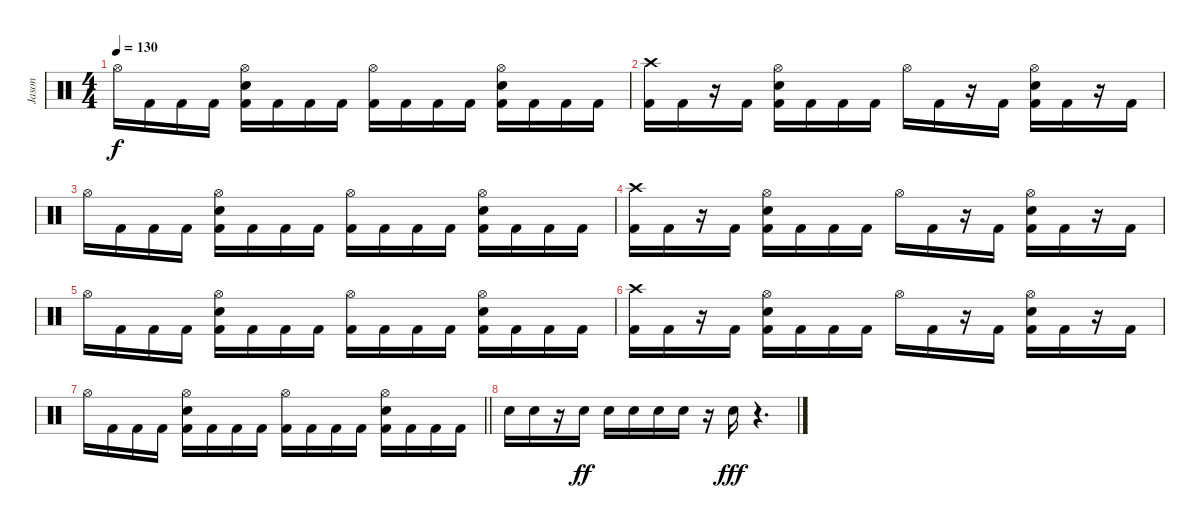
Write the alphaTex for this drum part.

\track ("Jason" "Jason") {instrument percussion}
\staff {score}
\articulation defaults
\ts (4 4)
\tempo 130
\clef neutral
\ks c "Hi-Hat (open)".16{dy f} "Kick (hit) 2".16 "Kick (hit) 2".16 "Kick (hit) 2".16
("Hi-Hat (open)" "Electric Snare (hit)" "Kick (hit) 2").16 "Kick (hit) 2".16 "Kick (hit) 2".16 "Kick (hit) 2".16 ("Hi-Hat (open)" "Kick (hit) 2").16 "Kick (hit) 2".16 "Kick (hit) 2".16 "Kick (hit) 2".16 ("Hi-Hat (open)" "Electric Snare (hit)" "Kick (hit) 2").16 "Kick (hit) 2".16 "Kick (hit) 2".16 "Kick (hit) 2".16 |
("Crash high (hit)" "Kick (hit) 2").16 "Kick (hit) 2".16 r.16 "Kick (hit) 2".16 ("Hi-Hat (open)" "Electric Snare (hit)" "Kick (hit) 2").16 "Kick (hit) 2".16 "Kick (hit) 2".16 "Kick (hit) 2".16 "Hi-Hat (open)".16 "Kick (hit) 2".16 r.16 "Kick (hit) 2".16 ("Hi-Hat (open)" "Electric Snare (hit)" "Kick (hit) 2").16 "Kick (hit) 2".16 r.16 "Kick (hit) 2".16 |
"Hi-Hat (open)".16 "Kick (hit) 2".16 "Kick (hit) 2".16 "Kick (hit) 2".16 ("Hi-Hat (open)" "Electric Snare (hit)" "Kick (hit) 2").16 "Kick (hit) 2".16 "Kick (hit) 2".16 "Kick (hit) 2".16 ("Hi-Hat (open)" "Kick (hit) 2").16 "Kick (hit) 2".16 "Kick (hit) 2".16 "Kick (hit) 2".16 ("Hi-Hat (open)" "Electric Snare (hit)" "Kick (hit) 2").16 "Kick (hit) 2".16 "Kick (hit) 2".16 "Kick (hit) 2".16 |
("Crash high (hit)" "Kick (hit) 2").16 "Kick (hit) 2".16 r.16 "Kick (hit) 2".16 ("Hi-Hat (open)" "Electric Snare (hit)" "Kick (hit) 2").16 "Kick (hit) 2".16 "Kick (hit) 2".16 "Kick (hit) 2".16 "Hi-Hat (open)".16 "Kick (hit) 2".16 r.16 "Kick (hit) 2".16 ("Hi-Hat (open)" "Electric Snare (hit)" "Kick (hit) 2").16 "Kick (hit) 2".16 r.16 "Kick (hit) 2".16 |
"Hi-Hat (open)".16 "Kick (hit) 2".16 "Kick (hit) 2".16 "Kick (hit) 2".16 ("Hi-Hat (open)" "Electric Snare (hit)" "Kick (hit) 2").16 "Kick (hit) 2".16 "Kick (hit) 2".16 "Kick (hit) 2".16 ("Hi-Hat (open)" "Kick (hit) 2").16 "Kick (hit) 2".16 "Kick (hit) 2".16 "Kick (hit) 2".16 ("Hi-Hat (open)" "Electric Snare (hit)" "Kick (hit) 2").16 "Kick (hit) 2".16 "Kick (hit) 2".16 "Kick (hit) 2".16 |
("Crash high (hit)" "Kick (hit) 2").16 "Kick (hit) 2".16 r.16 "Kick (hit) 2".16 ("Hi-Hat (open)" "Electric Snare (hit)" "Kick (hit) 2").16 "Kick (hit) 2".16 "Kick (hit) 2".16 "Kick (hit) 2".16 "Hi-Hat (open)".16 "Kick (hit) 2".16 r.16 "Kick (hit) 2".16 ("Hi-Hat (open)" "Electric Snare (hit)" "Kick (hit) 2").16 "Kick (hit) 2".16 r.16 "Kick (hit) 2".16 |
\barLineRight lightlight "Hi-Hat (open)".16 "Kick (hit) 2".16 "Kick (hit) 2".16 "Kick (hit) 2".16
("Hi-Hat (open)" "Electric Snare (hit)" "Kick (hit) 2").16 "Kick (hit) 2".16 "Kick (hit) 2".16 "Kick (hit) 2".16 ("Hi-Hat (open)" "Kick (hit) 2").16 "Kick (hit) 2".16 "Kick (hit) 2".16 "Kick (hit) 2".16 ("Hi-Hat (open)" "Electric Snare (hit)" "Kick (hit) 2").16 "Kick (hit) 2".16 "Kick (hit) 2".16 "Kick (hit) 2".16 |
"Electric Snare (hit)".16 "Electric Snare (hit)".16 r.16 "Electric Snare (hit)".16{dy ff} "Electric Snare (hit)".16 "Electric Snare (hit)".16 "Electric Snare (hit)".16 "Electric Snare (hit)".16 r.16 "Electric Snare (hit)".16{dy fff} r.4{d}
